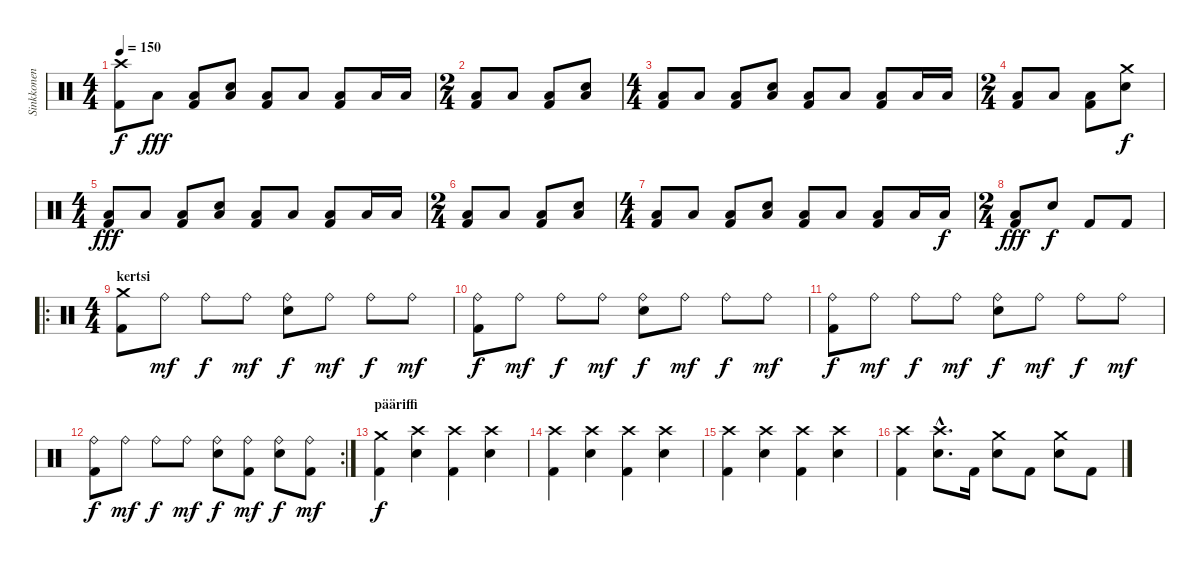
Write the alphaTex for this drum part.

\track ("Sinkkonen" "Sinkkonen") {instrument percussion}
\staff {score}
\articulation defaults
\ts (4 4)
\tempo 150
\clef neutral
\ks c
("Kick (hit) 2" "Crash high (hit)").8{dy f} "Low Floor Tom (hit)".8{dy fff} ("Kick (hit) 2" "Low Floor Tom (hit)").8 ("Low Floor Tom (hit)" "Snare (hit) 2").8 ("Kick (hit) 2" "Low Floor Tom (hit)").8 "Low Floor Tom (hit)".8 ("Kick (hit) 2" "Low Floor Tom (hit)").8 "Low Floor Tom (hit)".16 "Low Floor Tom (hit)".16 |
\ts (2 4)
("Kick (hit) 2" "Low Floor Tom (hit)").8 "Low Floor Tom (hit)".8 ("Kick (hit) 2" "Low Floor Tom (hit)").8 ("Low Floor Tom (hit)" "Snare (hit) 2").8 |
\ts (4 4)
("Kick (hit) 2" "Low Floor Tom (hit)").8 "Low Floor Tom (hit)".8 ("Kick (hit) 2" "Low Floor Tom (hit)").8 ("Low Floor Tom (hit)" "Snare (hit) 2").8 ("Kick (hit) 2" "Low Floor Tom (hit)").8 "Low Floor Tom (hit)".8 ("Kick (hit) 2" "Low Floor Tom (hit)").8 "Low Floor Tom (hit)".16 "Low Floor Tom (hit)".16 |
\ts (2 4)
("Kick (hit) 2" "Low Floor Tom (hit)").8 "Low Floor Tom (hit)".8 ("Kick (hit) 2" "Low Floor Tom (hit)").8 ("Crash medium (hit)" "Snare (hit) 2").8{dy f} |
\ts (4 4)
("Kick (hit) 2" "Low Floor Tom (hit)").8{dy fff} "Low Floor Tom (hit)".8 ("Kick (hit) 2" "Low Floor Tom (hit)").8 ("Low Floor Tom (hit)" "Snare (hit) 2").8 ("Kick (hit) 2" "Low Floor Tom (hit)").8 "Low Floor Tom (hit)".8 ("Kick (hit) 2" "Low Floor Tom (hit)").8 "Low Floor Tom (hit)".16 "Low Floor Tom (hit)".16 |
\ts (2 4)
("Kick (hit) 2" "Low Floor Tom (hit)").8 "Low Floor Tom (hit)".8 ("Kick (hit) 2" "Low Floor Tom (hit)").8 ("Low Floor Tom (hit)" "Snare (hit) 2").8 |
\ts (4 4)
("Kick (hit) 2" "Low Floor Tom (hit)").8 "Low Floor Tom (hit)".8 ("Kick (hit) 2" "Low Floor Tom (hit)").8 ("Low Floor Tom (hit)" "Snare (hit) 2").8 ("Kick (hit) 2" "Low Floor Tom (hit)").8 "Low Floor Tom (hit)".8 ("Kick (hit) 2" "Low Floor Tom (hit)").8 "Low Floor Tom (hit)".16 "Low Floor Tom (hit)".16{dy f} |
\ts (2 4)
("Kick (hit) 2" "Low Floor Tom (hit)").8{dy fff} "Snare (hit) 2".8{dy f} "Kick (hit) 2".8 "Kick (hit) 2".8 |
\ro
\ts (4 4)
\section ("" "kertsi")
("Kick (hit) 2" "Crash medium (hit)").8 "Ride (bell)".8{dy mf} "Ride (bell)".8{dy f} "Ride (bell)".8{dy mf} ("Ride (bell)" "Snare (hit) 2").8{dy f} "Ride (bell)".8{dy mf} "Ride (bell)".8{dy f} "Ride (bell)".8{dy mf} |
("Kick (hit) 2" "Ride (bell)").8{dy f} "Ride (bell)".8{dy mf} "Ride (bell)".8{dy f} "Ride (bell)".8{dy mf} ("Ride (bell)" "Snare (hit) 2").8{dy f} "Ride (bell)".8{dy mf} "Ride (bell)".8{dy f} "Ride (bell)".8{dy mf} |
("Kick (hit) 2" "Ride (bell)").8{dy f} "Ride (bell)".8{dy mf} "Ride (bell)".8{dy f} "Ride (bell)".8{dy mf} ("Ride (bell)" "Snare (hit) 2").8{dy f} "Ride (bell)".8{dy mf} "Ride (bell)".8{dy f} "Ride (bell)".8{dy mf} |
\rc 2
("Kick (hit) 2" "Ride (bell)").8{dy f} "Ride (bell)".8{dy mf} "Ride (bell)".8{dy f} "Ride (bell)".8{dy mf} ("Ride (bell)" "Snare (hit) 2").8{dy f} ("Kick (hit) 2" "Ride (bell)").8{dy mf} ("Ride (bell)" "Snare (hit) 2").8{dy f} ("Kick (hit) 2" "Ride (bell)").8{dy mf} |
\section ("" "pääriffi")
("Kick (hit) 2" "Crash medium (hit)").4{dy f} ("Crash high (hit)" "Snare (hit) 2").4 ("Kick (hit) 2" "Crash high (hit)").4 ("Crash high (hit)" "Snare (hit) 2").4 |
("Kick (hit) 2" "Crash high (hit)").4 ("Crash high (hit)" "Snare (hit) 2").4 ("Kick (hit) 2" "Crash high (hit)").4 ("Crash high (hit)" "Snare (hit) 2").4 |
("Kick (hit) 2" "Crash high (hit)").4 ("Crash high (hit)" "Snare (hit) 2").4 ("Kick (hit) 2" "Crash high (hit)").4 ("Crash high (hit)" "Snare (hit) 2").4 |
("Kick (hit) 2" "Crash high (hit)").4 ("Crash high (hit)"{hac} "Snare (hit) 2"{hac}).8{d} "Kick (hit) 2".16 ("Crash medium (hit)" "Snare (hit) 2").8 "Kick (hit) 2".8 ("Crash medium (hit)" "Snare (hit) 2").8 "Kick (hit) 2".8
